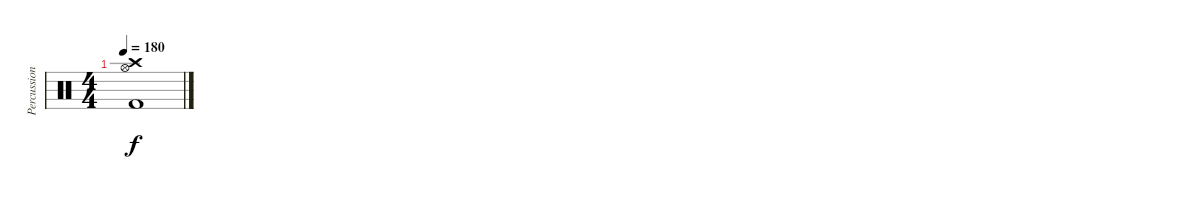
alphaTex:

\track ("Percussion" "Percussion") {instrument percussion}
\staff {score}
\articulation defaults
\ts (4 4)
\tempo 180
\clef neutral
\ks c
("Crash high (hit)" "Hi-Hat (open)" "Kick (hit) 2").1{dy f}
